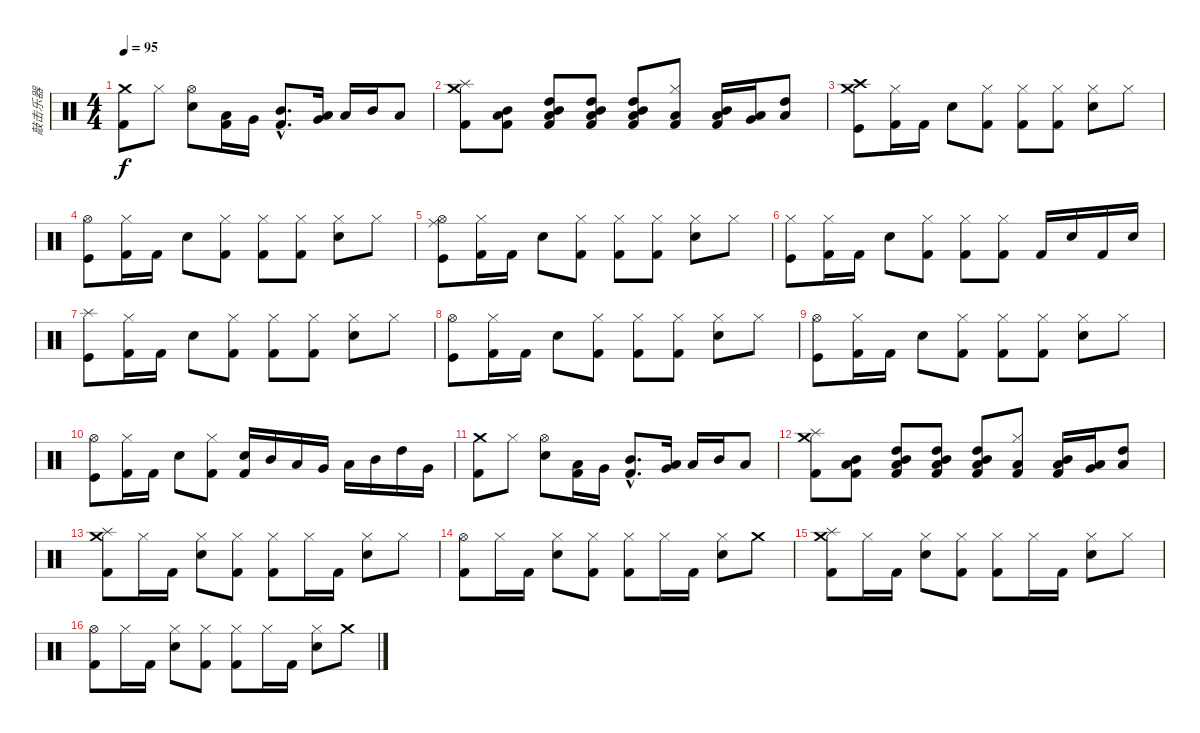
\track ("敲击乐器" "敲击乐器") {instrument percussion}
\staff {score}
\articulation defaults
\ts (4 4)
\tempo 95
\clef neutral
\ks c
("Crash medium (hit)" "Kick (hit) 2").8{dy f} "Hi-Hat (closed)".8 ("Hi-Hat (open)" "Electric Snare (hit)").8 ("Low Tom (hit)" "Kick (hit) 2").16 "Very Low Tom (hit)".16 ("Mid Tom (hit)"{hac} "Kick (hit) 2"{hac}).8{d} ("Very Low Tom (hit)" "Low Tom (hit)").16 "Low Tom (hit)".16 "Mid Tom (hit)".16 "Low Floor Tom (hit)".8 |
("Splash (hit)" "Crash medium (hit)" "Kick (hit) 2").8 ("Mid Tom (hit)" "Low Tom (hit)" "Kick (hit) 2").8 ("Mid Tom (hit)" "High Tom (hit)" "Low Tom (hit)" "Kick (hit) 2").8 ("Mid Tom (hit)" "High Tom (hit)" "Low Tom (hit)" "Kick (hit) 2").8 ("Mid Tom (hit)" "High Tom (hit)" "Low Tom (hit)" "Kick (hit) 2").8 ("Hi-Hat (closed)" "Low Tom (hit)" "Kick (hit) 2").8 ("Mid Tom (hit)" "Low Tom (hit)" "Kick (hit) 2").16 ("Low Tom (hit)" "Very Low Tom (hit)").16 ("High Tom (hit)" "Low Floor Tom (hit)").8 |
("Crash medium (hit)" "Crash high (hit)" "Kick (hit)").8 ("Hi-Hat (closed)" "Kick (hit) 2").16 "Kick (hit) 2".16 "Electric Snare (hit)".8 ("Hi-Hat (closed)" "Kick (hit) 2").8 ("Hi-Hat (closed)" "Kick (hit) 2").8 ("Hi-Hat (closed)" "Kick (hit) 2").8 ("Hi-Hat (closed)" "Electric Snare (hit)").8 "Hi-Hat (closed)".8 |
("Hi-Hat (open)" "Kick (hit)").8 ("Hi-Hat (closed)" "Kick (hit) 2").16 "Kick (hit) 2".16 "Electric Snare (hit)".8 ("Hi-Hat (closed)" "Kick (hit) 2").8 ("Hi-Hat (closed)" "Kick (hit) 2").8 ("Hi-Hat (closed)" "Kick (hit) 2").8 ("Hi-Hat (closed)" "Electric Snare (hit)").8 "Hi-Hat (closed)".8 |
("Ride (middle)" "Hi-Hat (open)" "Kick (hit)").8 ("Hi-Hat (closed)" "Kick (hit) 2").16 "Kick (hit) 2".16 "Electric Snare (hit)".8 ("Hi-Hat (closed)" "Kick (hit) 2").8 ("Hi-Hat (closed)" "Kick (hit) 2").8 ("Hi-Hat (closed)" "Kick (hit) 2").8 ("Hi-Hat (closed)" "Electric Snare (hit)").8 "Hi-Hat (closed)".8 |
("Hi-Hat (closed)" "Kick (hit)").8 ("Hi-Hat (closed)" "Kick (hit) 2").16 "Kick (hit) 2".16 "Electric Snare (hit)".8 ("Hi-Hat (closed)" "Kick (hit) 2").8 ("Hi-Hat (closed)" "Kick (hit) 2").8 ("Hi-Hat (closed)" "Kick (hit) 2").8 "Kick (hit) 2".16 "Electric Snare (hit)".16 "Kick (hit) 2".16 "Electric Snare (hit)".16 |
("Splash (hit)" "Kick (hit)").8 ("Hi-Hat (closed)" "Kick (hit) 2").16 "Kick (hit) 2".16 "Electric Snare (hit)".8 ("Hi-Hat (closed)" "Kick (hit) 2").8 ("Hi-Hat (closed)" "Kick (hit) 2").8 ("Hi-Hat (closed)" "Kick (hit) 2").8 ("Hi-Hat (closed)" "Electric Snare (hit)").8 "Hi-Hat (closed)".8 |
("Hi-Hat (open)" "Kick (hit)").8 ("Hi-Hat (closed)" "Kick (hit) 2").16 "Kick (hit) 2".16 "Electric Snare (hit)".8 ("Hi-Hat (closed)" "Kick (hit) 2").8 ("Hi-Hat (closed)" "Kick (hit) 2").8 ("Hi-Hat (closed)" "Kick (hit) 2").8 ("Hi-Hat (closed)" "Electric Snare (hit)").8 "Hi-Hat (closed)".8 |
("Hi-Hat (open)" "Kick (hit)").8 ("Hi-Hat (closed)" "Kick (hit) 2").16 "Kick (hit) 2".16 "Electric Snare (hit)".8 ("Hi-Hat (closed)" "Kick (hit) 2").8 ("Hi-Hat (closed)" "Kick (hit) 2").8 ("Hi-Hat (closed)" "Kick (hit) 2").8 ("Hi-Hat (closed)" "Electric Snare (hit)").8 "Hi-Hat (closed)".8 |
("Hi-Hat (open)" "Kick (hit)").8 ("Hi-Hat (closed)" "Kick (hit) 2").16 "Kick (hit) 2".16 "Electric Snare (hit)".8 ("Hi-Hat (closed)" "Kick (hit) 2").8 ("Electric Snare (hit)" "Kick (hit) 2").16 "Mid Tom (hit)".16 "Low Tom (hit)".16 "Very Low Tom (hit)".16 "Low Tom (hit)".16 "Mid Tom (hit)".16 "High Tom (hit)".16 "Very Low Tom (hit)".16 |
("Crash medium (hit)" "Kick (hit) 2").8 "Hi-Hat (closed)".8 ("Hi-Hat (open)" "Electric Snare (hit)").8 ("Low Tom (hit)" "Kick (hit) 2").16 "Very Low Tom (hit)".16 ("Mid Tom (hit)"{hac} "Kick (hit) 2"{hac}).8{d} ("Very Low Tom (hit)" "Low Tom (hit)").16 "Low Tom (hit)".16 "Mid Tom (hit)".16 "Low Floor Tom (hit)".8 |
("Splash (hit)" "Crash medium (hit)" "Kick (hit) 2").8 ("Mid Tom (hit)" "Low Tom (hit)" "Kick (hit) 2").8 ("Mid Tom (hit)" "High Tom (hit)" "Low Tom (hit)" "Kick (hit) 2").8 ("Mid Tom (hit)" "High Tom (hit)" "Low Tom (hit)" "Kick (hit) 2").8 ("Mid Tom (hit)" "High Tom (hit)" "Low Tom (hit)" "Kick (hit) 2").8 ("Hi-Hat (closed)" "Low Tom (hit)" "Kick (hit) 2").8 ("Mid Tom (hit)" "Low Tom (hit)" "Kick (hit) 2").16 ("Low Tom (hit)" "Very Low Tom (hit)").16 ("High Tom (hit)" "Low Floor Tom (hit)").8 |
("Splash (hit)" "Crash medium (hit)" "Kick (hit) 2").8 "Hi-Hat (closed)".16 "Kick (hit) 2".16 ("Hi-Hat (closed)" "Electric Snare (hit)").8 ("Hi-Hat (closed)" "Kick (hit) 2").8 ("Hi-Hat (closed)" "Kick (hit) 2").8 "Hi-Hat (closed)".16 "Kick (hit) 2".16 ("Hi-Hat (closed)" "Electric Snare (hit)").8 "Hi-Hat (closed)".8 |
("Hi-Hat (open)" "Kick (hit) 2").8 "Hi-Hat (closed)".16 "Kick (hit) 2".16 ("Hi-Hat (closed)" "Electric Snare (hit)").8 ("Hi-Hat (closed)" "Kick (hit) 2").8 ("Hi-Hat (closed)" "Kick (hit) 2").8 "Hi-Hat (closed)".16 "Kick (hit) 2".16 ("Hi-Hat (closed)" "Electric Snare (hit)").8 "Crash medium (hit)".8 |
("Splash (hit)" "Crash medium (hit)" "Kick (hit) 2").8 "Hi-Hat (closed)".16 "Kick (hit) 2".16 ("Hi-Hat (closed)" "Electric Snare (hit)").8 ("Hi-Hat (closed)" "Kick (hit) 2").8 ("Hi-Hat (closed)" "Kick (hit) 2").8 "Hi-Hat (closed)".16 "Kick (hit) 2".16 ("Hi-Hat (closed)" "Electric Snare (hit)").8 "Hi-Hat (closed)".8 |
("Hi-Hat (open)" "Kick (hit) 2").8 "Hi-Hat (closed)".16 "Kick (hit) 2".16 ("Hi-Hat (closed)" "Electric Snare (hit)").8 ("Hi-Hat (closed)" "Kick (hit) 2").8 ("Hi-Hat (closed)" "Kick (hit) 2").8 "Hi-Hat (closed)".16 "Kick (hit) 2".16 ("Hi-Hat (closed)" "Electric Snare (hit)").8 "Crash medium (hit)".8
